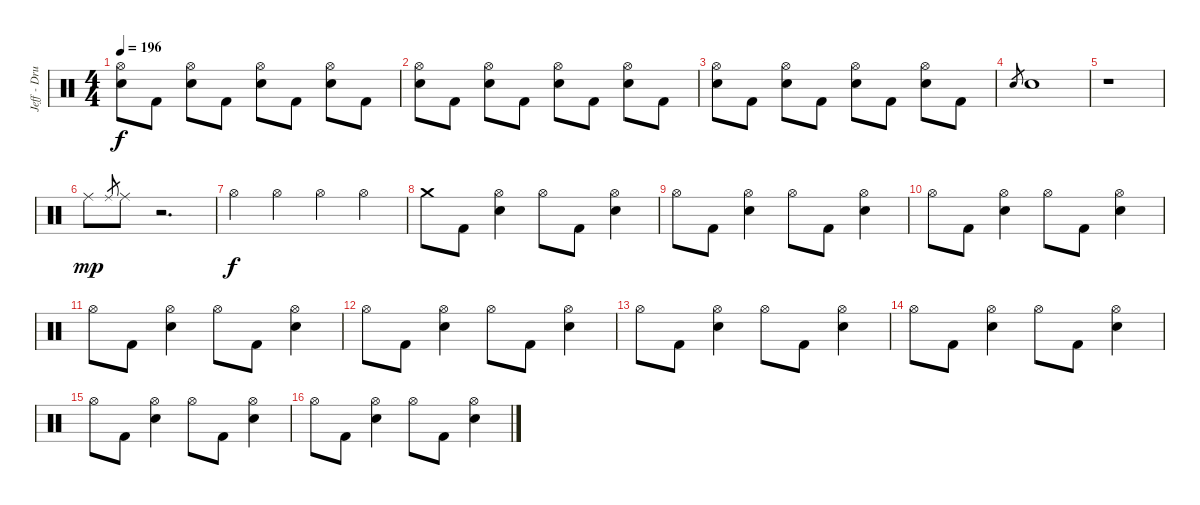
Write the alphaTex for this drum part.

\track ("Jeff - Drums" "Jeff - Dru") {instrument percussion}
\staff {score}
\articulation defaults
\ts (4 4)
\tempo 196
\clef neutral
\ks c
("Hi-Hat (open)" "Electric Snare (hit)").8{dy f} "Kick (hit) 2".8 ("Hi-Hat (open)" "Electric Snare (hit)").8 "Kick (hit) 2".8 ("Hi-Hat (open)" "Electric Snare (hit)").8 "Kick (hit) 2".8 ("Hi-Hat (open)" "Electric Snare (hit)").8 "Kick (hit) 2".8 |
("Hi-Hat (open)" "Electric Snare (hit)").8 "Kick (hit) 2".8 ("Hi-Hat (open)" "Electric Snare (hit)").8 "Kick (hit) 2".8 ("Hi-Hat (open)" "Electric Snare (hit)").8 "Kick (hit) 2".8 ("Hi-Hat (open)" "Electric Snare (hit)").8 "Kick (hit) 2".8 |
("Hi-Hat (open)" "Electric Snare (hit)").8 "Kick (hit) 2".8 ("Hi-Hat (open)" "Electric Snare (hit)").8 "Kick (hit) 2".8 ("Hi-Hat (open)" "Electric Snare (hit)").8 "Kick (hit) 2".8 ("Hi-Hat (open)" "Electric Snare (hit)").8 "Kick (hit) 2".8 |
"Electric Snare (hit)".8{gr} "Electric Snare (hit)".1 |
r.1 |
"Ride (middle)".8{dy mp} "Ride (middle)".8{gr} "Ride (middle)".8 r.2{d} |
"Hi-Hat (open)".4{dy f} "Hi-Hat (open)".4 "Hi-Hat (open)".4 "Hi-Hat (open)".4 |
"Crash medium (hit)".8 "Kick (hit) 2".8 ("Hi-Hat (open)" "Electric Snare (hit)").4 "Hi-Hat (open)".8 "Kick (hit) 2".8 ("Hi-Hat (open)" "Electric Snare (hit)").4 |
"Hi-Hat (open)".8 "Kick (hit) 2".8 ("Hi-Hat (open)" "Electric Snare (hit)").4 "Hi-Hat (open)".8 "Kick (hit) 2".8 ("Hi-Hat (open)" "Electric Snare (hit)").4 |
"Hi-Hat (open)".8 "Kick (hit) 2".8 ("Hi-Hat (open)" "Electric Snare (hit)").4 "Hi-Hat (open)".8 "Kick (hit) 2".8 ("Hi-Hat (open)" "Electric Snare (hit)").4 |
"Hi-Hat (open)".8 "Kick (hit) 2".8 ("Hi-Hat (open)" "Electric Snare (hit)").4 "Hi-Hat (open)".8 "Kick (hit) 2".8 ("Hi-Hat (open)" "Electric Snare (hit)").4 |
"Hi-Hat (open)".8 "Kick (hit) 2".8 ("Hi-Hat (open)" "Electric Snare (hit)").4 "Hi-Hat (open)".8 "Kick (hit) 2".8 ("Hi-Hat (open)" "Electric Snare (hit)").4 |
"Hi-Hat (open)".8 "Kick (hit) 2".8 ("Hi-Hat (open)" "Electric Snare (hit)").4 "Hi-Hat (open)".8 "Kick (hit) 2".8 ("Hi-Hat (open)" "Electric Snare (hit)").4 |
"Hi-Hat (open)".8 "Kick (hit) 2".8 ("Hi-Hat (open)" "Electric Snare (hit)").4 "Hi-Hat (open)".8 "Kick (hit) 2".8 ("Hi-Hat (open)" "Electric Snare (hit)").4 |
"Hi-Hat (open)".8 "Kick (hit) 2".8 ("Hi-Hat (open)" "Electric Snare (hit)").4 "Hi-Hat (open)".8 "Kick (hit) 2".8 ("Hi-Hat (open)" "Electric Snare (hit)").4 |
"Hi-Hat (open)".8 "Kick (hit) 2".8 ("Hi-Hat (open)" "Electric Snare (hit)").4 "Hi-Hat (open)".8 "Kick (hit) 2".8 ("Hi-Hat (open)" "Electric Snare (hit)").4
